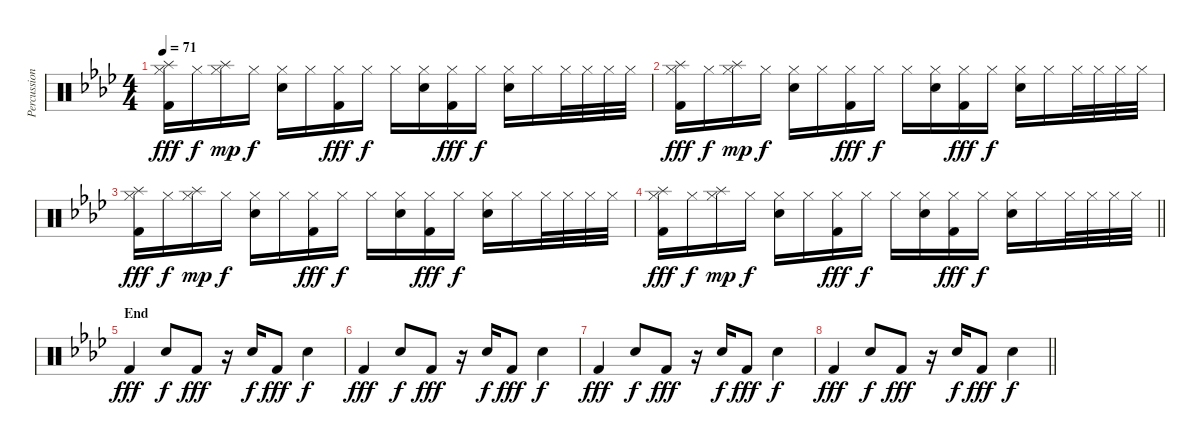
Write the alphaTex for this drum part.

\track ("Percussion" "Percussion") {instrument percussion}
\staff {score}
\articulation defaults
\ts (4 4)
\tempo 71
\clef neutral
\ks ab
("Splash (hit)" "Hi-Hat (closed)" "Kick (hit) 2").16{dy fff} "Hi-Hat (closed)".16{dy f} ("Splash (hit)" "Hi-Hat (closed)").16{dy mp} "Hi-Hat (closed)".16{dy f} ("Hi-Hat (closed)" "Snare (hit) 2").16 "Hi-Hat (closed)".16 ("Hi-Hat (closed)" "Kick (hit) 2").16{dy fff} "Hi-Hat (closed)".16{dy f} "Hi-Hat (closed)".16 ("Hi-Hat (closed)" "Snare (hit) 2").16 ("Hi-Hat (closed)" "Kick (hit) 2").16{dy fff} "Hi-Hat (closed)".16{dy f} ("Hi-Hat (closed)" "Snare (hit) 2").16 "Hi-Hat (closed)".16 "Hi-Hat (closed)".32 "Hi-Hat (closed)".32 "Hi-Hat (closed)".32 "Hi-Hat (closed)".32 |
("Splash (hit)" "Hi-Hat (closed)" "Kick (hit) 2").16{dy fff} "Hi-Hat (closed)".16{dy f} ("Splash (hit)" "Hi-Hat (closed)").16{dy mp} "Hi-Hat (closed)".16{dy f} ("Hi-Hat (closed)" "Snare (hit) 2").16 "Hi-Hat (closed)".16 ("Hi-Hat (closed)" "Kick (hit) 2").16{dy fff} "Hi-Hat (closed)".16{dy f} "Hi-Hat (closed)".16 ("Hi-Hat (closed)" "Snare (hit) 2").16 ("Hi-Hat (closed)" "Kick (hit) 2").16{dy fff} "Hi-Hat (closed)".16{dy f} ("Hi-Hat (closed)" "Snare (hit) 2").16 "Hi-Hat (closed)".16 "Hi-Hat (closed)".32 "Hi-Hat (closed)".32 "Hi-Hat (closed)".32 "Hi-Hat (closed)".32 |
("Splash (hit)" "Hi-Hat (closed)" "Kick (hit) 2").16{dy fff} "Hi-Hat (closed)".16{dy f} ("Splash (hit)" "Hi-Hat (closed)").16{dy mp} "Hi-Hat (closed)".16{dy f} ("Hi-Hat (closed)" "Snare (hit) 2").16 "Hi-Hat (closed)".16 ("Hi-Hat (closed)" "Kick (hit) 2").16{dy fff} "Hi-Hat (closed)".16{dy f} "Hi-Hat (closed)".16 ("Hi-Hat (closed)" "Snare (hit) 2").16 ("Hi-Hat (closed)" "Kick (hit) 2").16{dy fff} "Hi-Hat (closed)".16{dy f} ("Hi-Hat (closed)" "Snare (hit) 2").16 "Hi-Hat (closed)".16 "Hi-Hat (closed)".32 "Hi-Hat (closed)".32 "Hi-Hat (closed)".32 "Hi-Hat (closed)".32 |
\barLineRight lightlight
("Splash (hit)" "Hi-Hat (closed)" "Kick (hit) 2").16{dy fff} "Hi-Hat (closed)".16{dy f} ("Splash (hit)" "Hi-Hat (closed)").16{dy mp} "Hi-Hat (closed)".16{dy f} ("Hi-Hat (closed)" "Snare (hit) 2").16 "Hi-Hat (closed)".16 ("Hi-Hat (closed)" "Kick (hit) 2").16{dy fff} "Hi-Hat (closed)".16{dy f} "Hi-Hat (closed)".16 ("Hi-Hat (closed)" "Snare (hit) 2").16 ("Hi-Hat (closed)" "Kick (hit) 2").16{dy fff} "Hi-Hat (closed)".16{dy f} ("Hi-Hat (closed)" "Snare (hit) 2").16 "Hi-Hat (closed)".16 "Hi-Hat (closed)".32 "Hi-Hat (closed)".32 "Hi-Hat (closed)".32 "Hi-Hat (closed)".32 |
\section ("" "End")
"Kick (hit) 2".4{dy fff} "Snare (hit) 2".8{dy f} "Kick (hit) 2".8{dy fff} r.16 "Snare (hit) 2".16{dy f} "Kick (hit) 2".8{dy fff} "Snare (hit) 2".4{dy f} |
"Kick (hit) 2".4{dy fff} "Snare (hit) 2".8{dy f} "Kick (hit) 2".8{dy fff} r.16 "Snare (hit) 2".16{dy f} "Kick (hit) 2".8{dy fff} "Snare (hit) 2".4{dy f} |
"Kick (hit) 2".4{dy fff} "Snare (hit) 2".8{dy f} "Kick (hit) 2".8{dy fff} r.16 "Snare (hit) 2".16{dy f} "Kick (hit) 2".8{dy fff} "Snare (hit) 2".4{dy f} |
\barLineRight lightlight "Kick (hit) 2".4{dy fff} "Snare (hit) 2".8{dy f} "Kick (hit) 2".8{dy fff}
r.16 "Snare (hit) 2".16{dy f} "Kick (hit) 2".8{dy fff} "Snare (hit) 2".4{dy f}
